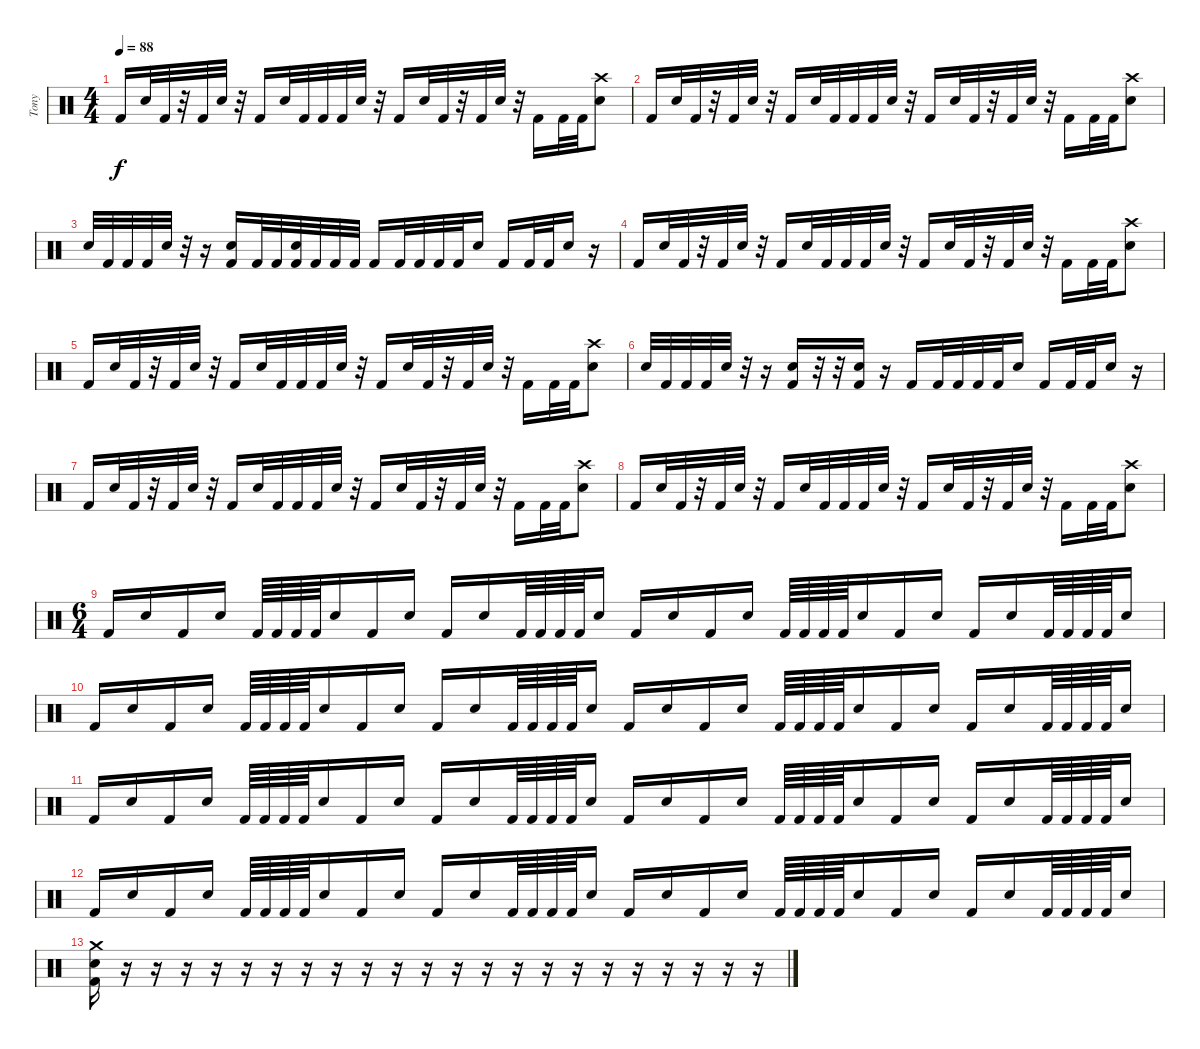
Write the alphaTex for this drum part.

\track ("Tony" "Tony") {instrument percussion}
\staff {score}
\articulation defaults
\ts (4 4)
\tempo 88
\clef neutral
\ks c "Kick (hit) 2".16{dy f} "Electric Snare (hit)".32 "Kick (hit) 2".32
r.32 "Kick (hit) 2".32 "Electric Snare (hit)".32 r.32 "Kick (hit) 2".16 "Electric Snare (hit)".32 "Kick (hit) 2".32 "Kick (hit) 2".32 "Kick (hit) 2".32 "Electric Snare (hit)".32 r.32 "Kick (hit) 2".16 "Electric Snare (hit)".32 "Kick (hit) 2".32 r.32 "Kick (hit) 2".32 "Electric Snare (hit)".32 r.32 "Kick (hit) 2".16 "Kick (hit) 2".32 "Kick (hit) 2".32 ("Crash high (hit)" "Electric Snare (hit)").8 |
"Kick (hit) 2".16 "Electric Snare (hit)".32 "Kick (hit) 2".32 r.32 "Kick (hit) 2".32 "Electric Snare (hit)".32 r.32 "Kick (hit) 2".16 "Electric Snare (hit)".32 "Kick (hit) 2".32 "Kick (hit) 2".32 "Kick (hit) 2".32 "Electric Snare (hit)".32 r.32 "Kick (hit) 2".16 "Electric Snare (hit)".32 "Kick (hit) 2".32 r.32 "Kick (hit) 2".32 "Electric Snare (hit)".32 r.32 "Kick (hit) 2".16 "Kick (hit) 2".32 "Kick (hit) 2".32 ("Crash high (hit)" "Electric Snare (hit)").8 |
"Electric Snare (hit)".32 "Kick (hit) 2".32 "Kick (hit) 2".32 "Kick (hit) 2".32 "Electric Snare (hit)".32 r.32 r.16 ("Electric Snare (hit)" "Kick (hit) 2").16 "Kick (hit) 2".32 "Kick (hit) 2".32 ("Electric Snare (hit)" "Kick (hit) 2").32 "Kick (hit) 2".32 "Kick (hit) 2".32 "Kick (hit) 2".32 "Kick (hit) 2".16 "Kick (hit) 2".32 "Kick (hit) 2".32 "Kick (hit) 2".32 "Kick (hit) 2".32 "Electric Snare (hit)".16 "Kick (hit) 2".16 "Kick (hit) 2".32 "Kick (hit) 2".32 "Electric Snare (hit)".16 r.16 |
"Kick (hit) 2".16 "Electric Snare (hit)".32 "Kick (hit) 2".32 r.32 "Kick (hit) 2".32 "Electric Snare (hit)".32 r.32 "Kick (hit) 2".16 "Electric Snare (hit)".32 "Kick (hit) 2".32 "Kick (hit) 2".32 "Kick (hit) 2".32 "Electric Snare (hit)".32 r.32 "Kick (hit) 2".16 "Electric Snare (hit)".32 "Kick (hit) 2".32 r.32 "Kick (hit) 2".32 "Electric Snare (hit)".32 r.32 "Kick (hit) 2".16 "Kick (hit) 2".32 "Kick (hit) 2".32 ("Crash high (hit)" "Electric Snare (hit)").8 |
"Kick (hit) 2".16 "Electric Snare (hit)".32 "Kick (hit) 2".32 r.32 "Kick (hit) 2".32 "Electric Snare (hit)".32 r.32 "Kick (hit) 2".16 "Electric Snare (hit)".32 "Kick (hit) 2".32 "Kick (hit) 2".32 "Kick (hit) 2".32 "Electric Snare (hit)".32 r.32 "Kick (hit) 2".16 "Electric Snare (hit)".32 "Kick (hit) 2".32 r.32 "Kick (hit) 2".32 "Electric Snare (hit)".32 r.32 "Kick (hit) 2".16 "Kick (hit) 2".32 "Kick (hit) 2".32 ("Crash high (hit)" "Electric Snare (hit)").8 |
"Electric Snare (hit)".32 "Kick (hit) 2".32 "Kick (hit) 2".32 "Kick (hit) 2".32 "Electric Snare (hit)".32 r.32 r.16 ("Electric Snare (hit)" "Kick (hit) 2").16 r.32 r.32 ("Electric Snare (hit)" "Kick (hit) 2").16 r.16 "Kick (hit) 2".16 "Kick (hit) 2".32 "Kick (hit) 2".32 "Kick (hit) 2".32 "Kick (hit) 2".32 "Electric Snare (hit)".16 "Kick (hit) 2".16 "Kick (hit) 2".32 "Kick (hit) 2".32 "Electric Snare (hit)".16 r.16 |
"Kick (hit) 2".16 "Electric Snare (hit)".32 "Kick (hit) 2".32 r.32 "Kick (hit) 2".32 "Electric Snare (hit)".32 r.32 "Kick (hit) 2".16 "Electric Snare (hit)".32 "Kick (hit) 2".32 "Kick (hit) 2".32 "Kick (hit) 2".32 "Electric Snare (hit)".32 r.32 "Kick (hit) 2".16 "Electric Snare (hit)".32 "Kick (hit) 2".32 r.32 "Kick (hit) 2".32 "Electric Snare (hit)".32 r.32 "Kick (hit) 2".16 "Kick (hit) 2".32 "Kick (hit) 2".32 ("Crash high (hit)" "Electric Snare (hit)").8 |
"Kick (hit) 2".16 "Electric Snare (hit)".32 "Kick (hit) 2".32 r.32 "Kick (hit) 2".32 "Electric Snare (hit)".32 r.32 "Kick (hit) 2".16 "Electric Snare (hit)".32 "Kick (hit) 2".32 "Kick (hit) 2".32 "Kick (hit) 2".32 "Electric Snare (hit)".32 r.32 "Kick (hit) 2".16 "Electric Snare (hit)".32 "Kick (hit) 2".32 r.32 "Kick (hit) 2".32 "Electric Snare (hit)".32 r.32 "Kick (hit) 2".16 "Kick (hit) 2".32 "Kick (hit) 2".32 ("Crash high (hit)" "Electric Snare (hit)").8 |
\ts (6 4)
"Kick (hit) 2".16 "Electric Snare (hit)".16 "Kick (hit) 2".16 "Electric Snare (hit)".16 "Kick (hit) 2".64 "Kick (hit) 2".64 "Kick (hit) 2".64 "Kick (hit) 2".64 "Electric Snare (hit)".16 "Kick (hit) 2".16 "Electric Snare (hit)".16 "Kick (hit) 2".16 "Electric Snare (hit)".16 "Kick (hit) 2".64 "Kick (hit) 2".64 "Kick (hit) 2".64 "Kick (hit) 2".64 "Electric Snare (hit)".16 "Kick (hit) 2".16 "Electric Snare (hit)".16 "Kick (hit) 2".16 "Electric Snare (hit)".16 "Kick (hit) 2".64 "Kick (hit) 2".64 "Kick (hit) 2".64 "Kick (hit) 2".64 "Electric Snare (hit)".16 "Kick (hit) 2".16 "Electric Snare (hit)".16 "Kick (hit) 2".16 "Electric Snare (hit)".16 "Kick (hit) 2".64 "Kick (hit) 2".64 "Kick (hit) 2".64 "Kick (hit) 2".64 "Electric Snare (hit)".16 |
"Kick (hit) 2".16 "Electric Snare (hit)".16 "Kick (hit) 2".16 "Electric Snare (hit)".16 "Kick (hit) 2".64 "Kick (hit) 2".64 "Kick (hit) 2".64 "Kick (hit) 2".64 "Electric Snare (hit)".16 "Kick (hit) 2".16 "Electric Snare (hit)".16 "Kick (hit) 2".16 "Electric Snare (hit)".16 "Kick (hit) 2".64 "Kick (hit) 2".64 "Kick (hit) 2".64 "Kick (hit) 2".64 "Electric Snare (hit)".16 "Kick (hit) 2".16 "Electric Snare (hit)".16 "Kick (hit) 2".16 "Electric Snare (hit)".16 "Kick (hit) 2".64 "Kick (hit) 2".64 "Kick (hit) 2".64 "Kick (hit) 2".64 "Electric Snare (hit)".16 "Kick (hit) 2".16 "Electric Snare (hit)".16 "Kick (hit) 2".16 "Electric Snare (hit)".16 "Kick (hit) 2".64 "Kick (hit) 2".64 "Kick (hit) 2".64 "Kick (hit) 2".64 "Electric Snare (hit)".16 |
"Kick (hit) 2".16 "Electric Snare (hit)".16 "Kick (hit) 2".16 "Electric Snare (hit)".16 "Kick (hit) 2".64 "Kick (hit) 2".64 "Kick (hit) 2".64 "Kick (hit) 2".64 "Electric Snare (hit)".16 "Kick (hit) 2".16 "Electric Snare (hit)".16 "Kick (hit) 2".16 "Electric Snare (hit)".16 "Kick (hit) 2".64 "Kick (hit) 2".64 "Kick (hit) 2".64 "Kick (hit) 2".64 "Electric Snare (hit)".16 "Kick (hit) 2".16 "Electric Snare (hit)".16 "Kick (hit) 2".16 "Electric Snare (hit)".16 "Kick (hit) 2".64 "Kick (hit) 2".64 "Kick (hit) 2".64 "Kick (hit) 2".64 "Electric Snare (hit)".16 "Kick (hit) 2".16 "Electric Snare (hit)".16 "Kick (hit) 2".16 "Electric Snare (hit)".16 "Kick (hit) 2".64 "Kick (hit) 2".64 "Kick (hit) 2".64 "Kick (hit) 2".64 "Electric Snare (hit)".16 |
"Kick (hit) 2".16 "Electric Snare (hit)".16 "Kick (hit) 2".16 "Electric Snare (hit)".16 "Kick (hit) 2".64 "Kick (hit) 2".64 "Kick (hit) 2".64 "Kick (hit) 2".64 "Electric Snare (hit)".16 "Kick (hit) 2".16 "Electric Snare (hit)".16 "Kick (hit) 2".16 "Electric Snare (hit)".16 "Kick (hit) 2".64 "Kick (hit) 2".64 "Kick (hit) 2".64 "Kick (hit) 2".64 "Electric Snare (hit)".16 "Kick (hit) 2".16 "Electric Snare (hit)".16 "Kick (hit) 2".16 "Electric Snare (hit)".16 "Kick (hit) 2".64 "Kick (hit) 2".64 "Kick (hit) 2".64 "Kick (hit) 2".64 "Electric Snare (hit)".16 "Kick (hit) 2".16 "Electric Snare (hit)".16 "Kick (hit) 2".16 "Electric Snare (hit)".16 "Kick (hit) 2".64 "Kick (hit) 2".64 "Kick (hit) 2".64 "Kick (hit) 2".64 "Electric Snare (hit)".16 |
("Crash medium (hit)" "Electric Snare (hit)" "Kick (hit) 2").16 r.16 r.16 r.16 r.16 r.16 r.16 r.16 r.16 r.16 r.16 r.16 r.16 r.16 r.16 r.16 r.16 r.16 r.16 r.16 r.16 r.16 r.16
